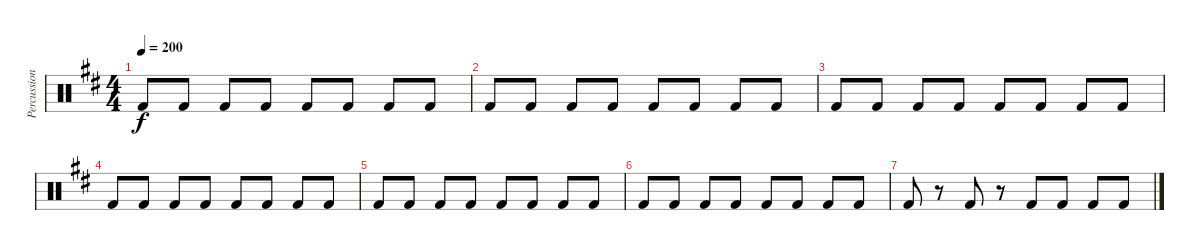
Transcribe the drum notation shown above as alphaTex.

\track ("Percussion" "Percussion") {instrument percussion}
\staff {score}
\articulation defaults
\ts (4 4)
\tempo 200
\clef neutral
\ks d "Kick (hit) 2".8{dy f} "Kick (hit) 2".8 "Kick (hit) 2".8 "Kick (hit) 2".8 "Kick (hit) 2".8 "Kick (hit) 2".8 "Kick (hit) 2".8 "Kick (hit) 2".8
|
"Kick (hit) 2".8 "Kick (hit) 2".8 "Kick (hit) 2".8 "Kick (hit) 2".8 "Kick (hit) 2".8 "Kick (hit) 2".8 "Kick (hit) 2".8 "Kick (hit) 2".8 |
"Kick (hit) 2".8 "Kick (hit) 2".8 "Kick (hit) 2".8 "Kick (hit) 2".8 "Kick (hit) 2".8 "Kick (hit) 2".8 "Kick (hit) 2".8 "Kick (hit) 2".8 |
"Kick (hit) 2".8 "Kick (hit) 2".8 "Kick (hit) 2".8 "Kick (hit) 2".8 "Kick (hit) 2".8 "Kick (hit) 2".8 "Kick (hit) 2".8 "Kick (hit) 2".8 |
"Kick (hit) 2".8 "Kick (hit) 2".8 "Kick (hit) 2".8 "Kick (hit) 2".8 "Kick (hit) 2".8 "Kick (hit) 2".8 "Kick (hit) 2".8 "Kick (hit) 2".8 |
"Kick (hit) 2".8 "Kick (hit) 2".8 "Kick (hit) 2".8 "Kick (hit) 2".8 "Kick (hit) 2".8 "Kick (hit) 2".8 "Kick (hit) 2".8 "Kick (hit) 2".8 |
"Kick (hit) 2".8 r.8 "Kick (hit) 2".8 r.8 "Kick (hit) 2".8 "Kick (hit) 2".8 "Kick (hit) 2".8 "Kick (hit) 2".8
